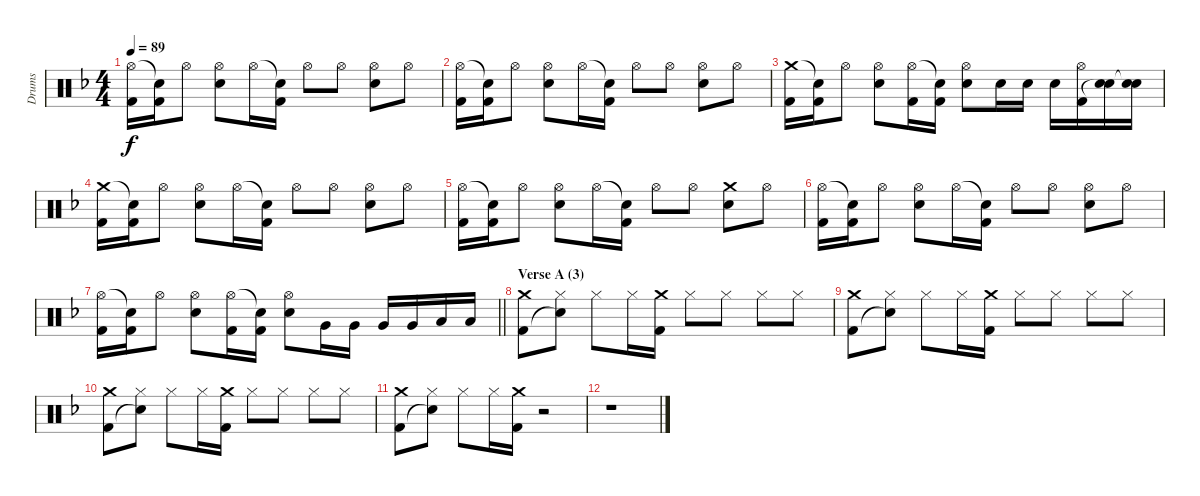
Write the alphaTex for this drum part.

\track ("Drums" "Drums") {instrument percussion}
\staff {score}
\articulation defaults
\ts (4 4)
\tempo 89
\clef neutral
\ks dminor
("Hi-Hat (open)" "Kick (hit) 2").16{dy f} ("Snare (hit)"{t} "Kick (hit) 2").16 "Hi-Hat (open)".8 ("Hi-Hat (open)" "Electric Snare (hit)").8 "Hi-Hat (open)".16 ("Snare (hit)"{t} "Kick (hit) 2").16 "Hi-Hat (open)".8 "Hi-Hat (open)".8 ("Hi-Hat (open)" "Electric Snare (hit)").8 "Hi-Hat (open)".8 |
("Hi-Hat (open)" "Kick (hit) 2").16 ("Snare (hit)"{t} "Kick (hit) 2").16 "Hi-Hat (open)".8 ("Hi-Hat (open)" "Electric Snare (hit)").8 "Hi-Hat (open)".16 ("Snare (hit)"{t} "Kick (hit) 2").16 "Hi-Hat (open)".8 "Hi-Hat (open)".8 ("Hi-Hat (open)" "Electric Snare (hit)").8 "Hi-Hat (open)".8 |
("Crash medium (hit)" "Kick (hit) 2").16 ("Snare (hit)"{t} "Kick (hit) 2").16 "Hi-Hat (open)".8 ("Hi-Hat (open)" "Electric Snare (hit)").8 ("Hi-Hat (open)" "Kick (hit) 2").16 ("Snare (hit)"{t} "Kick (hit) 2").16 ("Hi-Hat (open)" "Electric Snare (hit)").8 "Electric Snare (hit)".16 "Electric Snare (hit)".16 "Electric Snare (hit)".16 ("Hi-Hat (open)" "Kick (hit) 2").16 ("Electric Snare (hit)" "Snare (hit)"{t}).16 ("Electric Snare (hit)" "Snare (hit)"{t}).16 |
("Crash medium (hit)" "Kick (hit) 2").16 ("Snare (hit)"{t} "Kick (hit) 2").16 "Hi-Hat (open)".8 ("Hi-Hat (open)" "Electric Snare (hit)").8 "Hi-Hat (open)".16 ("Snare (hit)"{t} "Kick (hit) 2").16 "Hi-Hat (open)".8 "Hi-Hat (open)".8 ("Hi-Hat (open)" "Electric Snare (hit)").8 "Hi-Hat (open)".8 |
("Hi-Hat (open)" "Kick (hit) 2").16 ("Snare (hit)"{t} "Kick (hit) 2").16 "Hi-Hat (open)".8 ("Hi-Hat (open)" "Electric Snare (hit)").8 "Hi-Hat (open)".16 ("Snare (hit)"{t} "Kick (hit) 2").16 "Hi-Hat (open)".8 "Hi-Hat (open)".8 ("Crash medium (hit)" "Electric Snare (hit)").8 "Hi-Hat (open)".8 |
("Hi-Hat (open)" "Kick (hit) 2").16 ("Snare (hit)"{t} "Kick (hit) 2").16 "Hi-Hat (open)".8 ("Hi-Hat (open)" "Electric Snare (hit)").8 "Hi-Hat (open)".16 ("Snare (hit)"{t} "Kick (hit) 2").16 "Hi-Hat (open)".8 "Hi-Hat (open)".8 ("Hi-Hat (open)" "Electric Snare (hit)").8 "Hi-Hat (open)".8 |
\barLineRight lightlight
("Hi-Hat (open)" "Kick (hit) 2").16 ("Snare (hit)"{t} "Kick (hit) 2").16 "Hi-Hat (open)".8 ("Hi-Hat (open)" "Electric Snare (hit)").8 ("Hi-Hat (open)" "Kick (hit) 2").16 ("Snare (hit)"{t} "Kick (hit) 2").16 ("Hi-Hat (open)" "Electric Snare (hit)").8 "Very Low Tom (hit)".16 "Very Low Tom (hit)".16 "Very Low Tom (hit)".16 "Very Low Tom (hit)".16 "Low Floor Tom (hit)".16 "Low Floor Tom (hit)".16 |
\section ("" "Verse A (3)")
("Crash medium (hit)" "Kick (hit) 2").8 ("Hi-Hat (closed)" "Snare (hit)"{t}).8 "Hi-Hat (closed)".8 "Hi-Hat (closed)".16 ("Crash medium (hit)" "Kick (hit) 2").16 "Hi-Hat (closed)".8 "Hi-Hat (closed)".8 "Hi-Hat (closed)".8 "Hi-Hat (closed)".8 |
("Crash medium (hit)" "Kick (hit) 2").8 ("Hi-Hat (closed)" "Snare (hit)"{t}).8 "Hi-Hat (closed)".8 "Hi-Hat (closed)".16 ("Crash medium (hit)" "Kick (hit) 2").16 "Hi-Hat (closed)".8 "Hi-Hat (closed)".8 "Hi-Hat (closed)".8 "Hi-Hat (closed)".8 |
("Crash medium (hit)" "Kick (hit) 2").8 ("Hi-Hat (closed)" "Snare (hit)"{t}).8 "Hi-Hat (closed)".8 "Hi-Hat (closed)".16 ("Crash medium (hit)" "Kick (hit) 2").16 "Hi-Hat (closed)".8 "Hi-Hat (closed)".8 "Hi-Hat (closed)".8 "Hi-Hat (closed)".8 |
("Crash medium (hit)" "Kick (hit) 2").8 ("Hi-Hat (closed)" "Snare (hit)"{t}).8 "Hi-Hat (closed)".8 "Hi-Hat (closed)".16 ("Crash medium (hit)" "Kick (hit) 2").16 r.2 |
r.1
